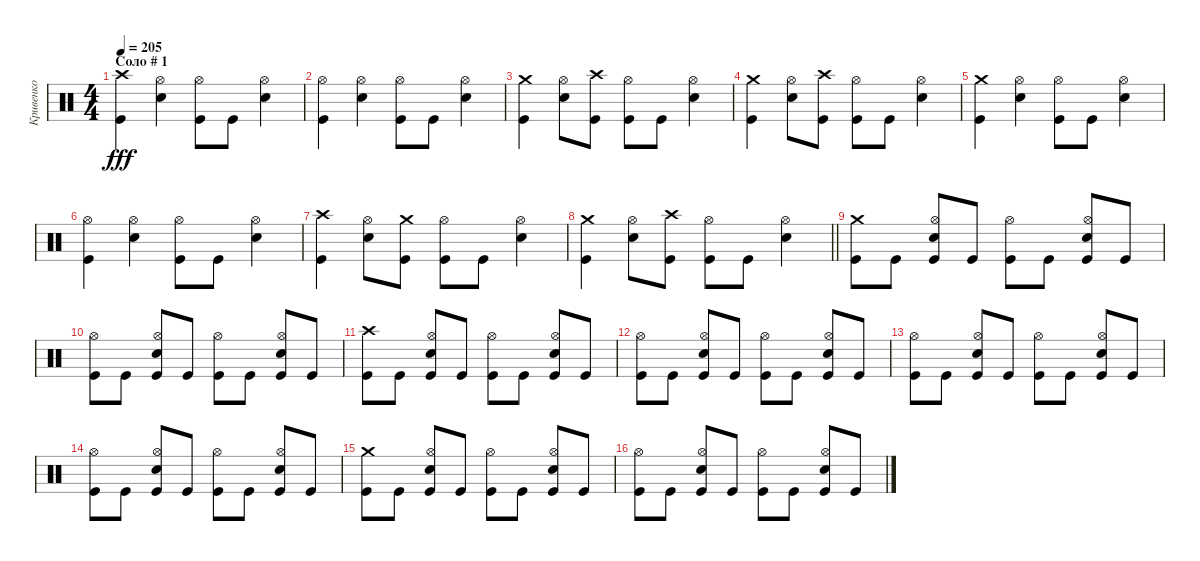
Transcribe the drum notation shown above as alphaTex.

\track ("Кривенко" "Кривенко") {instrument percussion}
\staff {score}
\articulation defaults
\ts (4 4)
\section ("" "Соло # 1")
\tempo 205
\clef neutral
\ks c
("Crash high (hit)" "Kick (hit)").4{dy fff} ("Hi-Hat (open)" "Electric Snare (hit)").4 ("Hi-Hat (open)" "Kick (hit)").8 "Kick (hit)".8 ("Hi-Hat (open)" "Electric Snare (hit)").4 |
("Hi-Hat (open)" "Kick (hit)").4 ("Hi-Hat (open)" "Electric Snare (hit)").4 ("Hi-Hat (open)" "Kick (hit)").8 "Kick (hit)".8 ("Hi-Hat (open)" "Electric Snare (hit)").4 |
("Crash medium (hit)" "Kick (hit)").4 ("Hi-Hat (open)" "Electric Snare (hit)").8 ("Crash high (hit)" "Kick (hit)").8 ("Hi-Hat (open)" "Kick (hit)").8 "Kick (hit)".8 ("Hi-Hat (open)" "Electric Snare (hit)").4 |
("Crash medium (hit)" "Kick (hit)").4 ("Hi-Hat (open)" "Electric Snare (hit)").8 ("Crash high (hit)" "Kick (hit)").8 ("Hi-Hat (open)" "Kick (hit)").8 "Kick (hit)".8 ("Hi-Hat (open)" "Electric Snare (hit)").4 |
("Crash medium (hit)" "Kick (hit)").4 ("Hi-Hat (open)" "Electric Snare (hit)").4 ("Hi-Hat (open)" "Kick (hit)").8 "Kick (hit)".8 ("Hi-Hat (open)" "Electric Snare (hit)").4 |
("Hi-Hat (open)" "Kick (hit)").4 ("Hi-Hat (open)" "Electric Snare (hit)").4 ("Hi-Hat (open)" "Kick (hit)").8 "Kick (hit)".8 ("Hi-Hat (open)" "Electric Snare (hit)").4 |
("Crash high (hit)" "Kick (hit)").4 ("Hi-Hat (open)" "Electric Snare (hit)").8 ("Crash medium (hit)" "Kick (hit)").8 ("Hi-Hat (open)" "Kick (hit)").8 "Kick (hit)".8 ("Hi-Hat (open)" "Electric Snare (hit)").4 |
\barLineRight lightlight
("Crash medium (hit)" "Kick (hit)").4 ("Hi-Hat (open)" "Electric Snare (hit)").8 ("Crash high (hit)" "Kick (hit)").8 ("Hi-Hat (open)" "Kick (hit)").8 "Kick (hit)".8 ("Hi-Hat (open)" "Electric Snare (hit)").4 |
("Crash medium (hit)" "Kick (hit)").8 "Kick (hit)".8 ("Hi-Hat (open)" "Electric Snare (hit)" "Kick (hit)").8 "Kick (hit)".8 ("Hi-Hat (open)" "Kick (hit)").8 "Kick (hit)".8 ("Hi-Hat (open)" "Electric Snare (hit)" "Kick (hit)").8 "Kick (hit)".8 |
("Hi-Hat (open)" "Kick (hit)").8 "Kick (hit)".8 ("Hi-Hat (open)" "Electric Snare (hit)" "Kick (hit)").8 "Kick (hit)".8 ("Hi-Hat (open)" "Kick (hit)").8 "Kick (hit)".8 ("Hi-Hat (open)" "Electric Snare (hit)" "Kick (hit)").8 "Kick (hit)".8 |
("Crash high (hit)" "Kick (hit)").8 "Kick (hit)".8 ("Hi-Hat (open)" "Electric Snare (hit)" "Kick (hit)").8 "Kick (hit)".8 ("Hi-Hat (open)" "Kick (hit)").8 "Kick (hit)".8 ("Hi-Hat (open)" "Electric Snare (hit)" "Kick (hit)").8 "Kick (hit)".8 |
("Hi-Hat (open)" "Kick (hit)").8 "Kick (hit)".8 ("Hi-Hat (open)" "Electric Snare (hit)" "Kick (hit)").8 "Kick (hit)".8 ("Hi-Hat (open)" "Kick (hit)").8 "Kick (hit)".8 ("Hi-Hat (open)" "Electric Snare (hit)" "Kick (hit)").8 "Kick (hit)".8 |
("Hi-Hat (open)" "Kick (hit)").8 "Kick (hit)".8 ("Hi-Hat (open)" "Electric Snare (hit)" "Kick (hit)").8 "Kick (hit)".8 ("Hi-Hat (open)" "Kick (hit)").8 "Kick (hit)".8 ("Hi-Hat (open)" "Electric Snare (hit)" "Kick (hit)").8 "Kick (hit)".8 |
("Hi-Hat (open)" "Kick (hit)").8 "Kick (hit)".8 ("Hi-Hat (open)" "Electric Snare (hit)" "Kick (hit)").8 "Kick (hit)".8 ("Hi-Hat (open)" "Kick (hit)").8 "Kick (hit)".8 ("Hi-Hat (open)" "Electric Snare (hit)" "Kick (hit)").8 "Kick (hit)".8 |
("Crash medium (hit)" "Kick (hit)").8 "Kick (hit)".8 ("Hi-Hat (open)" "Electric Snare (hit)" "Kick (hit)").8 "Kick (hit)".8 ("Hi-Hat (open)" "Kick (hit)").8 "Kick (hit)".8 ("Hi-Hat (open)" "Electric Snare (hit)" "Kick (hit)").8 "Kick (hit)".8 |
("Hi-Hat (open)" "Kick (hit)").8 "Kick (hit)".8 ("Hi-Hat (open)" "Electric Snare (hit)" "Kick (hit)").8 "Kick (hit)".8 ("Hi-Hat (open)" "Kick (hit)").8 "Kick (hit)".8 ("Hi-Hat (open)" "Electric Snare (hit)" "Kick (hit)").8 "Kick (hit)".8
